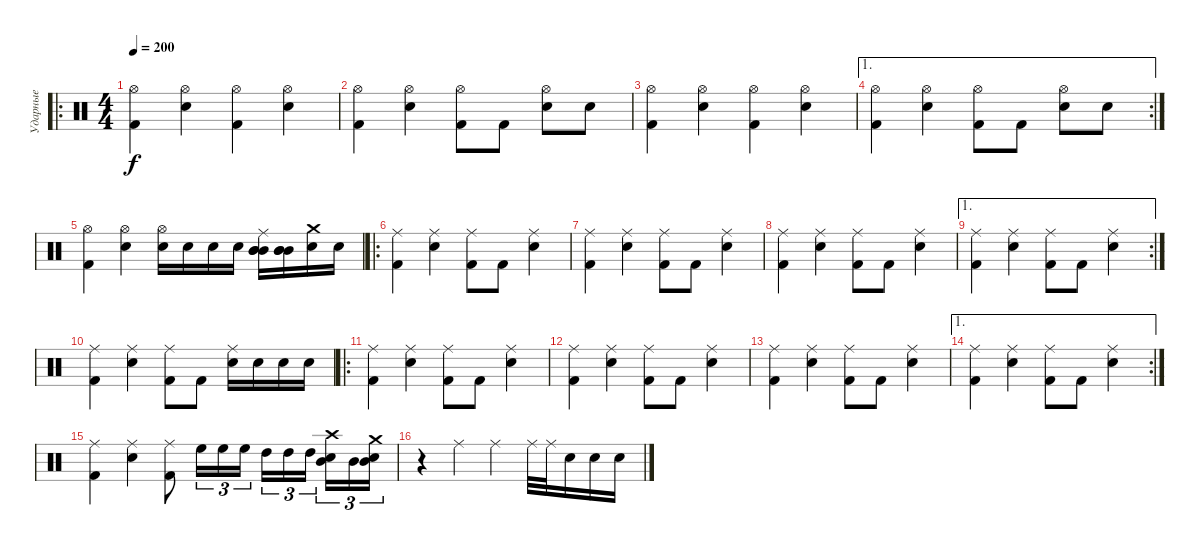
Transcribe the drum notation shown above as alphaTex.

\track ("Ударные" "Ударные") {instrument percussion}
\staff {score}
\articulation defaults
\ro
\ts (4 4)
\tempo 200
\clef neutral
\ks c
("Hi-Hat (open)" "Kick (hit) 2").4{dy f} ("Hi-Hat (open)" "Snare (hit) 2").4 ("Hi-Hat (open)" "Kick (hit) 2").4 ("Hi-Hat (open)" "Snare (hit) 2").4 |
("Hi-Hat (open)" "Kick (hit) 2").4 ("Hi-Hat (open)" "Snare (hit) 2").4 ("Hi-Hat (open)" "Kick (hit) 2").8 "Kick (hit) 2".8 ("Hi-Hat (open)" "Snare (hit) 2").8 "Snare (hit) 2".8 |
("Hi-Hat (open)" "Kick (hit) 2").4 ("Hi-Hat (open)" "Snare (hit) 2").4 ("Hi-Hat (open)" "Kick (hit) 2").4 ("Hi-Hat (open)" "Snare (hit) 2").4 |
\ae 1
\rc 2
("Hi-Hat (open)" "Kick (hit) 2").4 ("Hi-Hat (open)" "Snare (hit) 2").4 ("Hi-Hat (open)" "Kick (hit) 2").8 "Kick (hit) 2".8 ("Hi-Hat (open)" "Snare (hit) 2").8 "Snare (hit) 2".8 |
("Hi-Hat (open)" "Kick (hit) 2").4 ("Hi-Hat (open)" "Snare (hit) 2").4 ("Hi-Hat (open)" "Snare (hit) 2").16 "Snare (hit) 2".16 "Snare (hit) 2".16 "Snare (hit) 2".16 ("Ride (middle)" "Mid Tom (hit)" "Mid Tom (hit)" "Mid Tom (hit)").16 ("Mid Tom (hit)" "Mid Tom (hit)" "Mid Tom (hit)").16 ("Snare (hit) 2" "Crash medium (hit)").16 "Snare (hit) 2".16 |
\ro
("Ride (middle)" "Kick (hit) 2").4 ("Ride (middle)" "Snare (hit) 2").4 ("Ride (middle)" "Kick (hit) 2").8 "Kick (hit) 2".8 ("Ride (middle)" "Snare (hit) 2").4 |
("Ride (middle)" "Kick (hit) 2").4 ("Ride (middle)" "Snare (hit) 2").4 ("Ride (middle)" "Kick (hit) 2").8 "Kick (hit) 2".8 ("Ride (middle)" "Snare (hit) 2").4 |
("Ride (middle)" "Kick (hit) 2").4 ("Ride (middle)" "Snare (hit) 2").4 ("Ride (middle)" "Kick (hit) 2").8 "Kick (hit) 2".8 ("Ride (middle)" "Snare (hit) 2").4 |
\ae 1
\rc 2
("Ride (middle)" "Kick (hit) 2").4 ("Ride (middle)" "Snare (hit) 2").4 ("Ride (middle)" "Kick (hit) 2").8 "Kick (hit) 2".8 ("Ride (middle)" "Snare (hit) 2").4 |
("Ride (middle)" "Kick (hit) 2").4 ("Ride (middle)" "Snare (hit) 2").4 ("Ride (middle)" "Kick (hit) 2").8 "Kick (hit) 2".8 ("Ride (middle)" "Snare (hit) 2").16 "Snare (hit) 2".16 "Snare (hit) 2".16 "Snare (hit) 2".16 |
\ro
("Ride (middle)" "Kick (hit) 2").4 ("Ride (middle)" "Snare (hit) 2").4 ("Ride (middle)" "Kick (hit) 2").8 "Kick (hit) 2".8 ("Ride (middle)" "Snare (hit) 2").4 |
("Ride (middle)" "Kick (hit) 2").4 ("Ride (middle)" "Snare (hit) 2").4 ("Ride (middle)" "Kick (hit) 2").8 "Kick (hit) 2".8 ("Ride (middle)" "Snare (hit) 2").4 |
("Ride (middle)" "Kick (hit) 2").4 ("Ride (middle)" "Snare (hit) 2").4 ("Ride (middle)" "Kick (hit) 2").8 "Kick (hit) 2".8 ("Ride (middle)" "Snare (hit) 2").4 |
\ae 1
\rc 2
("Ride (middle)" "Kick (hit) 2").4 ("Ride (middle)" "Snare (hit) 2").4 ("Ride (middle)" "Kick (hit) 2").8 "Kick (hit) 2".8 ("Ride (middle)" "Snare (hit) 2").4 |
("Ride (middle)" "Kick (hit) 2").4 ("Ride (middle)" "Snare (hit) 2").4 ("Ride (middle)" "Kick (hit) 2").8 "High Floor Tom (hit)".16{tu (3 2)} "High Floor Tom (hit)".16{tu (3 2)} "High Floor Tom (hit)".16{tu (3 2)} "High Tom (hit)".16{tu (3 2)} "High Tom (hit)".16{tu (3 2)} "High Tom (hit)".16{tu (3 2)} ("Mid Tom (hit)" "Snare (hit) 2" "Crash high (hit)").16{tu (3 2)} "Mid Tom (hit)".16{tu (3 2)} ("Mid Tom (hit)" "Snare (hit) 2" "Crash medium (hit)").16{tu (3 2)} |
r.4 "Ride (middle)".4 "Ride (middle)".4 "Ride (middle)".32 "Ride (middle)".32 "Snare (hit) 2".16 "Snare (hit) 2".16 "Snare (hit) 2".16
